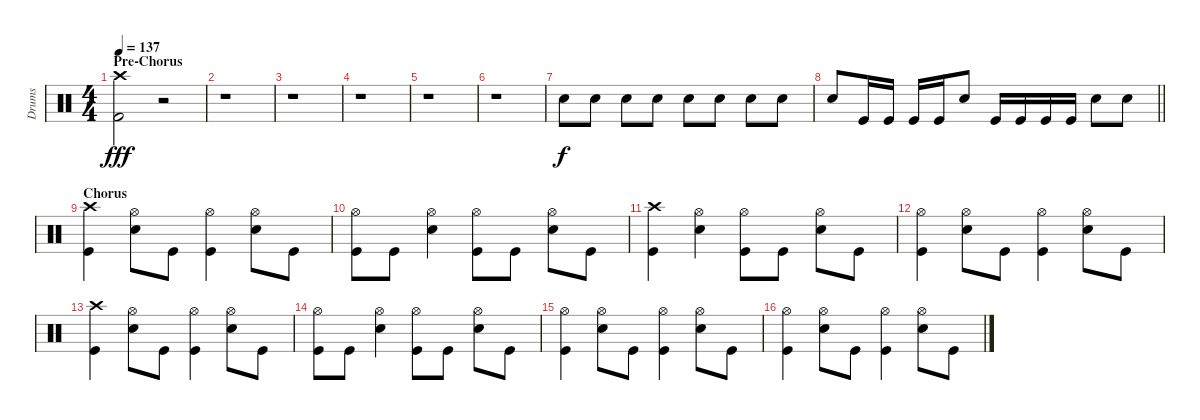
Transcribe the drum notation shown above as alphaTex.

\track ("Drums" "Drums") {instrument percussion}
\staff {score}
\articulation defaults
\ts (4 4)
\section ("" "Pre-Chorus")
\tempo 137
\clef neutral
\ks c
("Crash high (hit)" "Kick (hit) 2").2{dy fff} r.2 |
r.1 |
r.1 |
r.1 |
r.1 |
r.1 |
"Electric Snare (hit)".8{dy f} "Electric Snare (hit)".8 "Electric Snare (hit)".8 "Electric Snare (hit)".8 "Electric Snare (hit)".8 "Electric Snare (hit)".8 "Electric Snare (hit)".8 "Electric Snare (hit)".8 |
\barLineRight lightlight "Electric Snare (hit)".8 "Kick (hit)".16 "Kick (hit)".16 "Kick (hit)".16 "Kick (hit)".16 "Electric Snare (hit)".8 "Kick (hit)".16 "Kick (hit)".16 "Kick (hit)".16 "Kick (hit)".16 "Electric Snare (hit)".8 "Electric Snare (hit)".8
|
\section ("" "Chorus ")
("Crash high (hit)" "Kick (hit)").4 ("Hi-Hat (open)" "Electric Snare (hit)").8 "Kick (hit)".8 ("Hi-Hat (open)" "Kick (hit)").4 ("Hi-Hat (open)" "Electric Snare (hit)").8 "Kick (hit)".8 |
("Hi-Hat (open)" "Kick (hit)").8 "Kick (hit)".8 ("Hi-Hat (open)" "Electric Snare (hit)").4 ("Hi-Hat (open)" "Kick (hit)").8 "Kick (hit)".8 ("Hi-Hat (open)" "Electric Snare (hit)").8 "Kick (hit)".8 |
("Crash high (hit)" "Kick (hit)").4 ("Hi-Hat (open)" "Electric Snare (hit)").4 ("Hi-Hat (open)" "Kick (hit)").8 "Kick (hit)".8 ("Hi-Hat (open)" "Electric Snare (hit)").8 "Kick (hit)".8 |
("Hi-Hat (open)" "Kick (hit)").4 ("Hi-Hat (open)" "Electric Snare (hit)").8 "Kick (hit)".8 ("Hi-Hat (open)" "Kick (hit)").4 ("Hi-Hat (open)" "Electric Snare (hit)").8 "Kick (hit)".8 |
("Crash high (hit)" "Kick (hit)").4 ("Hi-Hat (open)" "Electric Snare (hit)").8 "Kick (hit)".8 ("Hi-Hat (open)" "Kick (hit)").4 ("Hi-Hat (open)" "Electric Snare (hit)").8 "Kick (hit)".8 |
("Hi-Hat (open)" "Kick (hit)").8 "Kick (hit)".8 ("Hi-Hat (open)" "Electric Snare (hit)").4 ("Hi-Hat (open)" "Kick (hit)").8 "Kick (hit)".8 ("Hi-Hat (open)" "Electric Snare (hit)").8 "Kick (hit)".8 |
("Hi-Hat (open)" "Kick (hit)").4 ("Hi-Hat (open)" "Electric Snare (hit)").8 "Kick (hit)".8 ("Hi-Hat (open)" "Kick (hit)").4 ("Hi-Hat (open)" "Electric Snare (hit)").8 "Kick (hit)".8 |
("Hi-Hat (open)" "Kick (hit)").4 ("Hi-Hat (open)" "Electric Snare (hit)").8 "Kick (hit)".8 ("Hi-Hat (open)" "Kick (hit)").4 ("Hi-Hat (open)" "Electric Snare (hit)").8 "Kick (hit)".8
